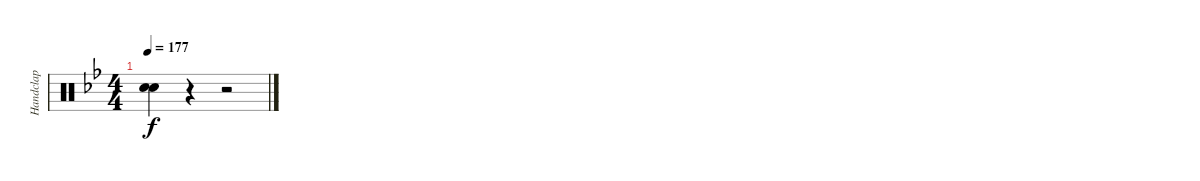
\track ("Handclap" "Handclap") {instrument percussion}
\staff {score}
\articulation defaults
\ts (4 4)
\tempo 177
\clef neutral
\ks bb
("Snare (hit)"{t} "Snare (hit)"{t}).4{dy f} r.4 r.2
